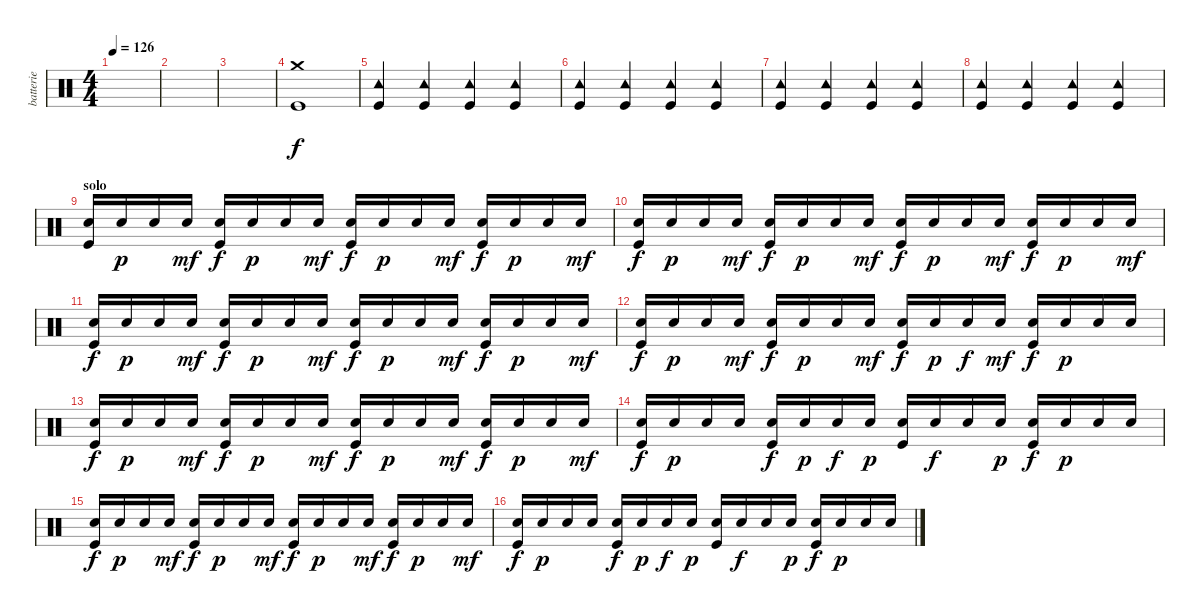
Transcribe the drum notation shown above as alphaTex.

\track ("batterie" "batterie") {instrument percussion}
\staff {score}
\articulation defaults
\ts (4 4)
\tempo 126
\clef neutral
\ks c
|
|
|
("Crash medium (hit)" "Kick (hit)").1 |
("Tambourine (hit)" "Kick (hit)").4 ("Tambourine (hit)" "Kick (hit)").4 ("Tambourine (hit)" "Kick (hit)").4 ("Tambourine (hit)" "Kick (hit)").4 |
("Tambourine (hit)" "Kick (hit)").4 ("Tambourine (hit)" "Kick (hit)").4 ("Tambourine (hit)" "Kick (hit)").4 ("Tambourine (hit)" "Kick (hit)").4 |
("Tambourine (hit)" "Kick (hit)").4 ("Tambourine (hit)" "Kick (hit)").4 ("Tambourine (hit)" "Kick (hit)").4 ("Tambourine (hit)" "Kick (hit)").4 |
("Tambourine (hit)" "Kick (hit)").4 ("Tambourine (hit)" "Kick (hit)").4 ("Tambourine (hit)" "Kick (hit)").4 ("Tambourine (hit)" "Kick (hit)").4 |
\section ("" "solo")
("Electric Snare (hit)" "Kick (hit)").16 "Electric Snare (hit)".16{dy p} "Electric Snare (hit)".16 "Electric Snare (hit)".16{dy mf} ("Electric Snare (hit)" "Kick (hit)").16{dy f} "Electric Snare (hit)".16{dy p} "Electric Snare (hit)".16 "Electric Snare (hit)".16{dy mf} ("Electric Snare (hit)" "Kick (hit)").16{dy f} "Electric Snare (hit)".16{dy p} "Electric Snare (hit)".16 "Electric Snare (hit)".16{dy mf} ("Electric Snare (hit)" "Kick (hit)").16{dy f} "Electric Snare (hit)".16{dy p} "Electric Snare (hit)".16 "Electric Snare (hit)".16{dy mf} |
("Electric Snare (hit)" "Kick (hit)").16{dy f} "Electric Snare (hit)".16{dy p} "Electric Snare (hit)".16 "Electric Snare (hit)".16{dy mf} ("Electric Snare (hit)" "Kick (hit)").16{dy f} "Electric Snare (hit)".16{dy p} "Electric Snare (hit)".16 "Electric Snare (hit)".16{dy mf} ("Electric Snare (hit)" "Kick (hit)").16{dy f} "Electric Snare (hit)".16{dy p} "Electric Snare (hit)".16 "Electric Snare (hit)".16{dy mf} ("Electric Snare (hit)" "Kick (hit)").16{dy f} "Electric Snare (hit)".16{dy p} "Electric Snare (hit)".16 "Electric Snare (hit)".16{dy mf} |
("Electric Snare (hit)" "Kick (hit)").16{dy f} "Electric Snare (hit)".16{dy p} "Electric Snare (hit)".16 "Electric Snare (hit)".16{dy mf} ("Electric Snare (hit)" "Kick (hit)").16{dy f} "Electric Snare (hit)".16{dy p} "Electric Snare (hit)".16 "Electric Snare (hit)".16{dy mf} ("Electric Snare (hit)" "Kick (hit)").16{dy f} "Electric Snare (hit)".16{dy p} "Electric Snare (hit)".16 "Electric Snare (hit)".16{dy mf} ("Electric Snare (hit)" "Kick (hit)").16{dy f} "Electric Snare (hit)".16{dy p} "Electric Snare (hit)".16 "Electric Snare (hit)".16{dy mf} |
("Electric Snare (hit)" "Kick (hit)").16{dy f} "Electric Snare (hit)".16{dy p} "Electric Snare (hit)".16 "Electric Snare (hit)".16{dy mf} ("Electric Snare (hit)" "Kick (hit)").16{dy f} "Electric Snare (hit)".16{dy p} "Electric Snare (hit)".16 "Electric Snare (hit)".16{dy mf} ("Electric Snare (hit)" "Kick (hit)").16{dy f} "Electric Snare (hit)".16{dy p} "Electric Snare (hit)".16{dy f} "Electric Snare (hit)".16{dy mf} ("Electric Snare (hit)" "Kick (hit)").16{dy f} "Electric Snare (hit)".16{dy p} "Electric Snare (hit)".16 "Electric Snare (hit)".16 |
("Electric Snare (hit)" "Kick (hit)").16{dy f} "Electric Snare (hit)".16{dy p} "Electric Snare (hit)".16 "Electric Snare (hit)".16{dy mf} ("Electric Snare (hit)" "Kick (hit)").16{dy f} "Electric Snare (hit)".16{dy p} "Electric Snare (hit)".16 "Electric Snare (hit)".16{dy mf} ("Electric Snare (hit)" "Kick (hit)").16{dy f} "Electric Snare (hit)".16{dy p} "Electric Snare (hit)".16 "Electric Snare (hit)".16{dy mf} ("Electric Snare (hit)" "Kick (hit)").16{dy f} "Electric Snare (hit)".16{dy p} "Electric Snare (hit)".16 "Electric Snare (hit)".16{dy mf} |
("Electric Snare (hit)" "Kick (hit)").16{dy f} "Electric Snare (hit)".16{dy p} "Electric Snare (hit)".16 "Electric Snare (hit)".16 ("Electric Snare (hit)" "Kick (hit)").16{dy f} "Electric Snare (hit)".16{dy p} "Electric Snare (hit)".16{dy f} "Electric Snare (hit)".16{dy p} ("Electric Snare (hit)" "Kick (hit)").16 "Electric Snare (hit)".16{dy f} "Electric Snare (hit)".16 "Electric Snare (hit)".16{dy p} ("Electric Snare (hit)" "Kick (hit)").16{dy f} "Electric Snare (hit)".16{dy p} "Electric Snare (hit)".16 "Electric Snare (hit)".16 |
("Electric Snare (hit)" "Kick (hit)").16{dy f} "Electric Snare (hit)".16{dy p} "Electric Snare (hit)".16 "Electric Snare (hit)".16{dy mf} ("Electric Snare (hit)" "Kick (hit)").16{dy f} "Electric Snare (hit)".16{dy p} "Electric Snare (hit)".16 "Electric Snare (hit)".16{dy mf} ("Electric Snare (hit)" "Kick (hit)").16{dy f} "Electric Snare (hit)".16{dy p} "Electric Snare (hit)".16 "Electric Snare (hit)".16{dy mf} ("Electric Snare (hit)" "Kick (hit)").16{dy f} "Electric Snare (hit)".16{dy p} "Electric Snare (hit)".16 "Electric Snare (hit)".16{dy mf} |
("Electric Snare (hit)" "Kick (hit)").16{dy f} "Electric Snare (hit)".16{dy p} "Electric Snare (hit)".16 "Electric Snare (hit)".16 ("Electric Snare (hit)" "Kick (hit)").16{dy f} "Electric Snare (hit)".16{dy p} "Electric Snare (hit)".16{dy f} "Electric Snare (hit)".16{dy p} ("Electric Snare (hit)" "Kick (hit)").16 "Electric Snare (hit)".16{dy f} "Electric Snare (hit)".16 "Electric Snare (hit)".16{dy p} ("Electric Snare (hit)" "Kick (hit)").16{dy f} "Electric Snare (hit)".16{dy p} "Electric Snare (hit)".16 "Electric Snare (hit)".16
